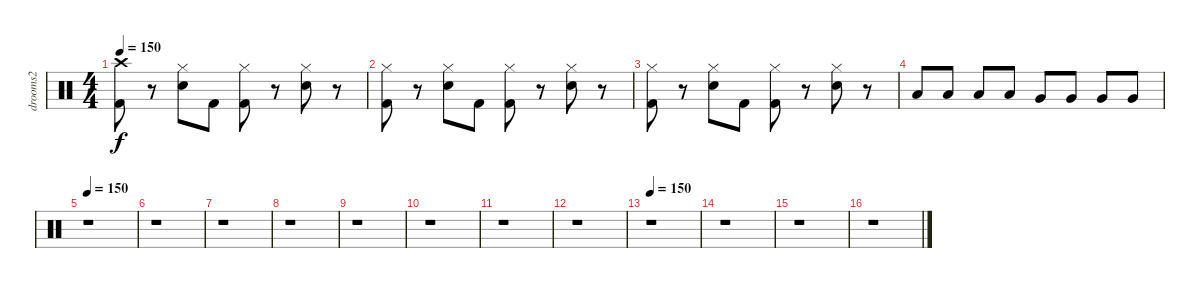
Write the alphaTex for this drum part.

\track ("drooms2" "drooms2") {instrument percussion}
\staff {score}
\articulation defaults
\ts (4 4)
\tempo 150
\clef neutral
\ks c
("Kick (hit) 2" "Crash high (hit)").8{dy f} r.8 ("Hi-Hat (closed)" "Snare (hit) 2").8 "Kick (hit) 2".8 ("Hi-Hat (closed)" "Kick (hit) 2").8 r.8 ("Hi-Hat (closed)" "Snare (hit) 2").8 r.8 |
("Kick (hit) 2" "Hi-Hat (closed)").8 r.8 ("Snare (hit) 2" "Hi-Hat (closed)").8 "Kick (hit) 2".8 ("Kick (hit) 2" "Hi-Hat (closed)").8 r.8 ("Snare (hit) 2" "Hi-Hat (closed)").8 r.8 |
("Kick (hit) 2" "Hi-Hat (closed)").8 r.8 ("Snare (hit) 2" "Hi-Hat (closed)").8 "Kick (hit) 2".8 ("Kick (hit) 2" "Hi-Hat (closed)").8 r.8 ("Snare (hit) 2" "Hi-Hat (closed)").8 r.8 |
"Low Tom (hit)".8 "Low Tom (hit)".8 "Low Tom (hit)".8 "Low Tom (hit)".8 "Very Low Tom (hit)".8 "Very Low Tom (hit)".8 "Very Low Tom (hit)".8 "Very Low Tom (hit)".8 |
\tempo 150
r.1 |
r.1 |
r.1 |
r.1 |
r.1 |
r.1 |
r.1 |
r.1 |
\tempo 150
r.1 |
r.1 |
r.1 |
r.1
